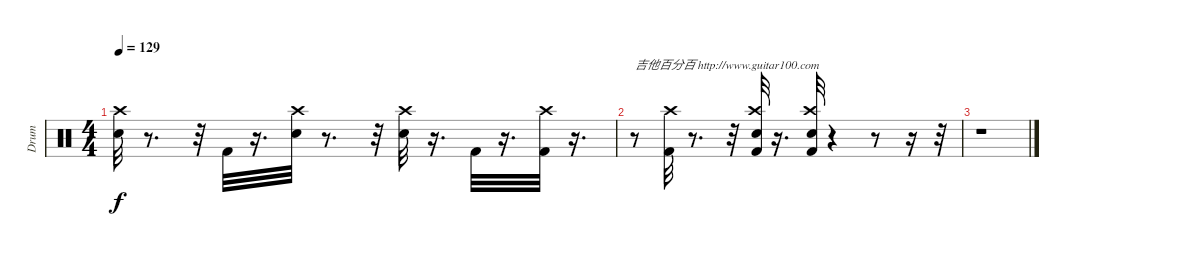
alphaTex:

\track ("Drum" "Drum") {instrument percussion}
\staff {score}
\articulation defaults
\ts (4 4)
\tempo 129
\clef neutral
\ks c
("Snare (hit) 2" "Crash high (hit)").32{dy f} r.8{d} r.32 "Kick (hit) 2".32 r.16{d} ("Snare (hit) 2" "Crash high (hit)").32 r.8{d} r.32 ("Snare (hit) 2" "Crash high (hit)").32 r.16{d} "Kick (hit) 2".32 r.16{d} ("Crash high (hit)" "Kick (hit) 2").32 r.16{d} |
r.8{txt "吉他百分百 http://www.guitar100.com"} ("Kick (hit) 2" "Crash high (hit)").32 r.8{d} r.32 ("Snare (hit) 2" "Crash high (hit)" "Kick (hit) 2").32 r.16{d} ("Kick (hit) 2" "Snare (hit) 2" "Crash high (hit)").32 r.4 r.8 r.16 r.32 |
r.1
